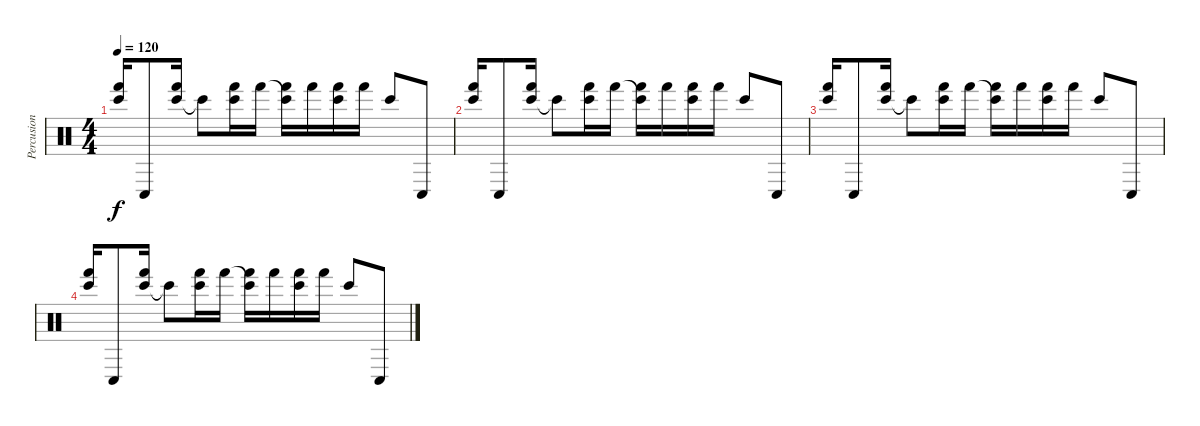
\track ("Percusion" "Percusion") {instrument percussion}
\staff {score}
\articulation defaults
\ts (4 4)
\tempo 120
\clef neutral
\ks c
("Bongo High (hit)" "Hand (hit)").16{dy f} "Conga low (hit)".8 ("Bongo High (hit)" "Hand (hit)").16 "Bongo High (hit)"{t}.8 ("Bongo High (hit)" "Hand (hit)").16 "Hand (hit)".16 ("Bongo High (hit)"{t} "Hand (hit)").16 "Hand (hit)".16 ("Bongo High (hit)" "Hand (hit)").16 "Hand (hit)".16 "Bongo High (hit)".8 "Conga low (hit)".8 |
("Bongo High (hit)" "Hand (hit)").16 "Conga low (hit)".8 ("Bongo High (hit)" "Hand (hit)").16 "Bongo High (hit)"{t}.8 ("Bongo High (hit)" "Hand (hit)").16 "Hand (hit)".16 ("Bongo High (hit)"{t} "Hand (hit)").16 "Hand (hit)".16 ("Bongo High (hit)" "Hand (hit)").16 "Hand (hit)".16 "Bongo High (hit)".8 "Conga low (hit)".8 |
("Bongo High (hit)" "Hand (hit)").16 "Conga low (hit)".8 ("Bongo High (hit)" "Hand (hit)").16 "Bongo High (hit)"{t}.8 ("Bongo High (hit)" "Hand (hit)").16 "Hand (hit)".16 ("Bongo High (hit)"{t} "Hand (hit)").16 "Hand (hit)".16 ("Bongo High (hit)" "Hand (hit)").16 "Hand (hit)".16 "Bongo High (hit)".8 "Conga low (hit)".8 |
("Bongo High (hit)" "Hand (hit)").16 "Conga low (hit)".8 ("Bongo High (hit)" "Hand (hit)").16 "Bongo High (hit)"{t}.8 ("Bongo High (hit)" "Hand (hit)").16 "Hand (hit)".16 ("Bongo High (hit)"{t} "Hand (hit)").16 "Hand (hit)".16 ("Bongo High (hit)" "Hand (hit)").16 "Hand (hit)".16 "Bongo High (hit)".8 "Conga low (hit)".8
